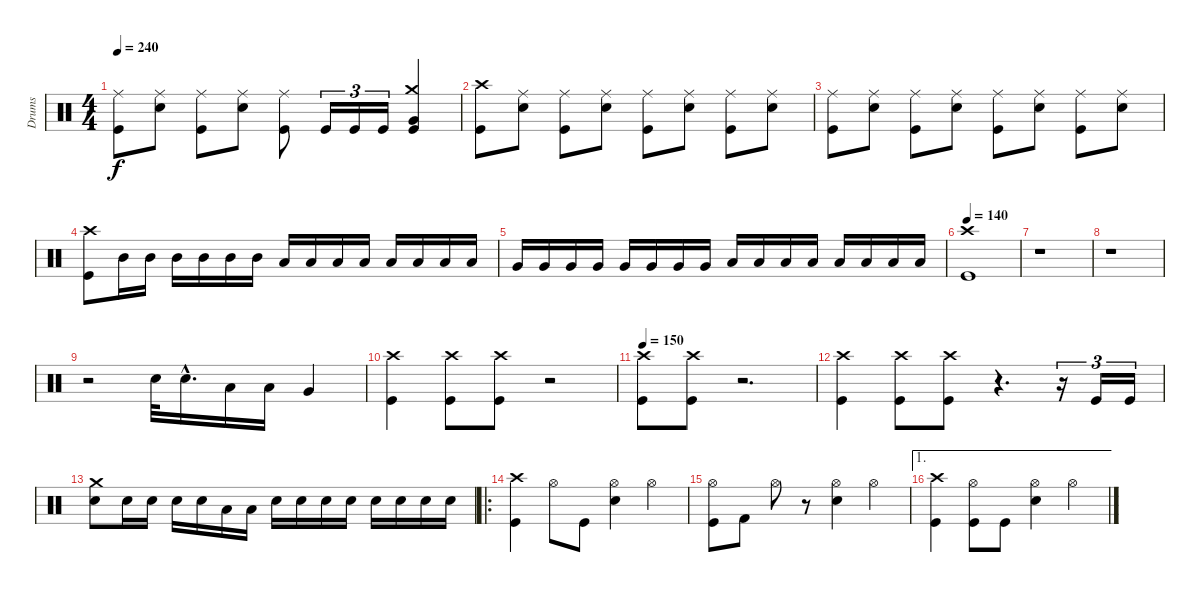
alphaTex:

\track ("Drums" "Drums") {instrument percussion}
\staff {score}
\articulation defaults
\ts (4 4)
\tempo 240
\clef neutral
\ks c
("Ride (middle)" "Kick (hit)").8{dy f} ("Ride (middle)" "Electric Snare (hit)").8 ("Ride (middle)" "Kick (hit)").8 ("Ride (middle)" "Electric Snare (hit)").8 ("Ride (middle)" "Kick (hit)").8 "Kick (hit)".16{tu (3 2)} "Kick (hit)".16{tu (3 2)} "Kick (hit)".16{tu (3 2)} ("Crash medium (hit)" "Very Low Tom (hit)" "Kick (hit)").4 |
("Crash high (hit)" "Kick (hit)").8 ("Ride (middle)" "Electric Snare (hit)").8 ("Ride (middle)" "Kick (hit)").8 ("Ride (middle)" "Electric Snare (hit)").8 ("Ride (middle)" "Kick (hit)").8 ("Ride (middle)" "Electric Snare (hit)").8 ("Ride (middle)" "Kick (hit)").8 ("Ride (middle)" "Electric Snare (hit)").8 |
("Ride (middle)" "Kick (hit)").8 ("Ride (middle)" "Electric Snare (hit)").8 ("Ride (middle)" "Kick (hit)").8 ("Ride (middle)" "Electric Snare (hit)").8 ("Ride (middle)" "Kick (hit)").8 ("Ride (middle)" "Electric Snare (hit)").8 ("Ride (middle)" "Kick (hit)").8 ("Ride (middle)" "Electric Snare (hit)").8 |
("Crash high (hit)" "Kick (hit)").8 "Mid Tom (hit)".16 "Mid Tom (hit)".16 "Mid Tom (hit)".16 "Mid Tom (hit)".16 "Mid Tom (hit)".16 "Mid Tom (hit)".16 "Low Tom (hit)".16 "Low Tom (hit)".16 "Low Tom (hit)".16 "Low Tom (hit)".16 "Low Tom (hit)".16 "Low Tom (hit)".16 "Low Tom (hit)".16 "Low Tom (hit)".16 |
"Very Low Tom (hit)".16 "Very Low Tom (hit)".16 "Very Low Tom (hit)".16 "Very Low Tom (hit)".16 "Very Low Tom (hit)".16 "Very Low Tom (hit)".16 "Very Low Tom (hit)".16 "Very Low Tom (hit)".16 "Low Floor Tom (hit)".16 "Low Floor Tom (hit)".16 "Low Floor Tom (hit)".16 "Low Floor Tom (hit)".16 "Low Floor Tom (hit)".16 "Low Floor Tom (hit)".16 "Low Floor Tom (hit)".16 "Low Floor Tom (hit)".16 |
\tempo 140
("Crash high (hit)" "Kick (hit)").1 |
r.1 |
r.1 |
r.2 "Electric Snare (hit)".32 "Electric Snare (hit)"{hac}.16{d} "Low Tom (hit)".16 "Low Tom (hit)".16 "Very Low Tom (hit)".4 |
("Crash high (hit)" "Kick (hit)").4 ("Crash high (hit)" "Kick (hit)").8 ("Crash high (hit)" "Kick (hit)").8 r.2{volume 0} |
\tempo 150
("Crash high (hit)" "Kick (hit)").8{volume 16} ("Crash high (hit)" "Kick (hit)").8 r.2{d volume 0} |
("Crash high (hit)" "Kick (hit)").4{volume 16} ("Crash high (hit)" "Kick (hit)").8 ("Crash high (hit)" "Kick (hit)").8 r.4{d volume 0} r.16{tu (3 2)} "Kick (hit)".16{tu (3 2) volume 16} "Kick (hit)".16{tu (3 2)} |
("Crash medium (hit)" "Electric Snare (hit)").8 "Electric Snare (hit)".16 "Electric Snare (hit)".16 "Electric Snare (hit)".16 "Electric Snare (hit)".16 "Low Tom (hit)".16 "Low Tom (hit)".16 "Electric Snare (hit)".16 "Electric Snare (hit)".16 "Electric Snare (hit)".16 "Electric Snare (hit)".16 "Electric Snare (hit)".16 "Electric Snare (hit)".16 "Electric Snare (hit)".16 "Electric Snare (hit)".16 |
\ro
("Crash high (hit)" "Kick (hit)").4 "Hi-Hat (open)".8 "Kick (hit)".8 ("Hi-Hat (open)" "Electric Snare (hit)").4 "Hi-Hat (open)".4 |
("Hi-Hat (open)" "Kick (hit)").8 "Kick (hit) 2".8 "Hi-Hat (open)".8 r.8 ("Hi-Hat (open)" "Electric Snare (hit)").4 "Hi-Hat (open)".4 |
\ae 1
("Crash high (hit)" "Kick (hit)").4 ("Hi-Hat (open)" "Kick (hit)").8 "Kick (hit)".8 ("Hi-Hat (open)" "Electric Snare (hit)").4 "Hi-Hat (open)".4
